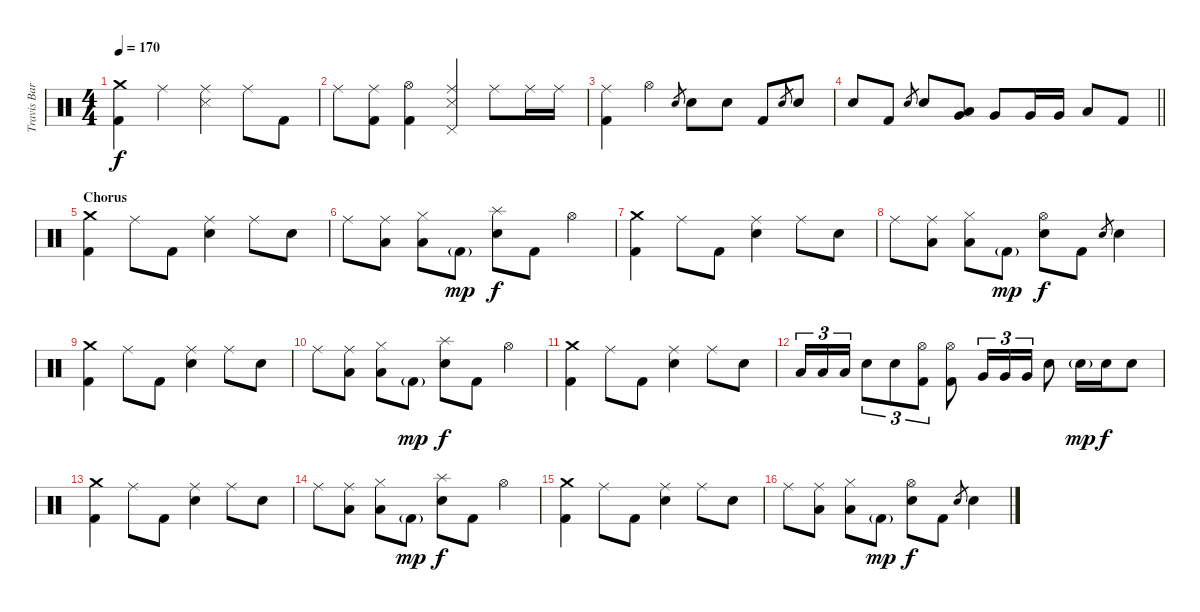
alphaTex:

\track ("Travis Barker - Drums" "Travis Bar") {instrument percussion}
\staff {score}
\articulation defaults
\ts (4 4)
\tempo 170
\clef neutral
\ks c
("Crash medium (hit)" "Kick (hit) 2").4{dy f} "Ride (middle)".4 ("Ride (middle)" "Snare (side stick) 3").4 "Ride (middle)".8 "Kick (hit) 2".8 |
"Ride (middle)".8 ("Ride (middle)" "Kick (hit) 2").8 ("Hi-Hat (open)" "Kick (hit) 2").4 ("Ride (middle)" "Pedal Hi-Hat (hit)" "Snare (side stick) 3").4 "Ride (middle)".8 "Ride (middle)".16 "Ride (middle)".16 |
("Ride (middle)" "Kick (hit) 2").4 "Hi-Hat (open)".4 "Electric Snare (hit)".8{gr} "Electric Snare (hit)".8 "Electric Snare (hit)".8 "Kick (hit) 2".8 "Electric Snare (hit)".8{gr} "Electric Snare (hit)".8 |
\barLineRight lightlight "Electric Snare (hit)".8 "Kick (hit) 2".8 "Electric Snare (hit)".8{gr} "Electric Snare (hit)".8
("Low Tom (hit)" "Very Low Tom (hit)").8 "Very Low Tom (hit)".8 "Very Low Tom (hit)".16 "Very Low Tom (hit)".16 "Low Floor Tom (hit)".8 "Kick (hit) 2".8 |
\section ("" "Chorus")
("Crash medium (hit)" "Kick (hit) 2").4 "Ride (middle)".8 "Kick (hit) 2".8 ("Ride (middle)" "Electric Snare (hit)").4 "Ride (middle)".8 "Electric Snare (hit)".8 |
"Ride (middle)".8 ("Ride (middle)" "Low Tom (hit)").8 ("Hi-Hat (closed)" "Low Tom (hit)").8 "Kick (hit) 2"{g}.8{dy mp} ("Splash (hit)" "Electric Snare (hit)").8{dy f} "Kick (hit) 2".8 "Hi-Hat (open)".4 |
("Crash medium (hit)" "Kick (hit) 2").4 "Ride (middle)".8 "Kick (hit) 2".8 ("Ride (middle)" "Electric Snare (hit)").4 "Ride (middle)".8 "Electric Snare (hit)".8 |
"Ride (middle)".8 ("Ride (middle)" "Low Tom (hit)").8 ("Hi-Hat (closed)" "Low Tom (hit)").8 "Kick (hit) 2"{g}.8{dy mp} ("Hi-Hat (open)" "Electric Snare (hit)").8{dy f} "Kick (hit) 2".8 "Electric Snare (hit)".8{gr} "Electric Snare (hit)".4 |
("Crash medium (hit)" "Kick (hit) 2").4 "Ride (middle)".8 "Kick (hit) 2".8 ("Ride (middle)" "Electric Snare (hit)").4 "Ride (middle)".8 "Electric Snare (hit)".8 |
"Ride (middle)".8 ("Ride (middle)" "Low Tom (hit)").8 ("Hi-Hat (closed)" "Low Tom (hit)").8 "Kick (hit) 2"{g}.8{dy mp} ("Splash (hit)" "Electric Snare (hit)").8{dy f} "Kick (hit) 2".8 "Hi-Hat (open)".4 |
("Crash medium (hit)" "Kick (hit) 2").4 "Ride (middle)".8 "Kick (hit) 2".8 ("Ride (middle)" "Electric Snare (hit)").4 "Ride (middle)".8 "Electric Snare (hit)".8 |
"Low Tom (hit)".16{tu (3 2)} "Low Tom (hit)".16{tu (3 2)} "Low Tom (hit)".16{tu (3 2)} "Electric Snare (hit)".8{tu (3 2)} "Electric Snare (hit)".8{tu (3 2)} ("Hi-Hat (open)" "Kick (hit) 2").8{tu (3 2)} ("Hi-Hat (open)" "Kick (hit) 2").8 "Very Low Tom (hit)".16{tu (3 2)} "Very Low Tom (hit)".16{tu (3 2)} "Very Low Tom (hit)".16{tu (3 2)} "Electric Snare (hit)".8 "Electric Snare (hit)"{g}.16{dy mp} "Electric Snare (hit)".16{dy f} "Electric Snare (hit)".8 |
("Crash medium (hit)" "Kick (hit) 2").4 "Ride (middle)".8 "Kick (hit) 2".8 ("Ride (middle)" "Electric Snare (hit)").4 "Ride (middle)".8 "Electric Snare (hit)".8 |
"Ride (middle)".8 ("Ride (middle)" "Low Tom (hit)").8 ("Hi-Hat (closed)" "Low Tom (hit)").8 "Kick (hit) 2"{g}.8{dy mp} ("Splash (hit)" "Electric Snare (hit)").8{dy f} "Kick (hit) 2".8 "Hi-Hat (open)".4 |
("Crash medium (hit)" "Kick (hit) 2").4 "Ride (middle)".8 "Kick (hit) 2".8 ("Ride (middle)" "Electric Snare (hit)").4 "Ride (middle)".8 "Electric Snare (hit)".8 |
"Ride (middle)".8 ("Ride (middle)" "Low Tom (hit)").8 ("Hi-Hat (closed)" "Low Tom (hit)").8 "Kick (hit) 2"{g}.8{dy mp} ("Hi-Hat (open)" "Electric Snare (hit)").8{dy f} "Kick (hit) 2".8 "Electric Snare (hit)".8{gr} "Electric Snare (hit)".4
